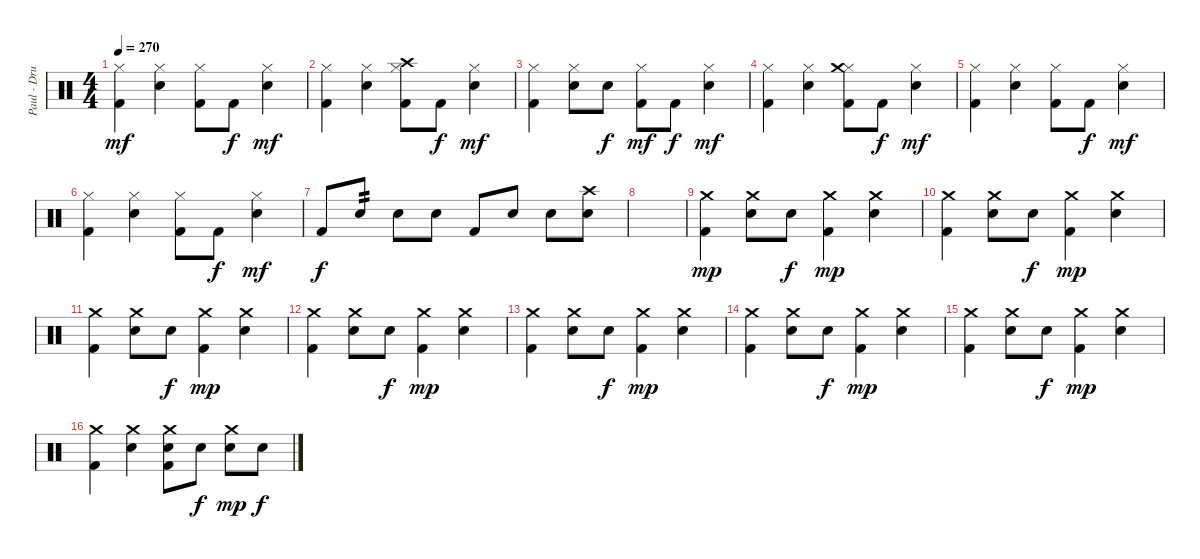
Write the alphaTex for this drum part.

\track ("Paul - Drums" "Paul - Dru") {instrument percussion}
\staff {score}
\articulation defaults
\ts (4 4)
\tempo 270
\clef neutral
\ks c
("Hi-Hat (closed)" "Kick (hit) 2").4{dy mf} ("Hi-Hat (closed)" "Electric Snare (hit)").4 ("Hi-Hat (closed)" "Kick (hit) 2").8 "Kick (hit) 2".8{dy f} ("Hi-Hat (closed)" "Electric Snare (hit)").4{dy mf} |
("Hi-Hat (closed)" "Kick (hit) 2").4 ("Hi-Hat (closed)" "Electric Snare (hit)").4 ("Hi-Hat (closed)" "Crash high (hit)" "Kick (hit) 2").8 "Kick (hit) 2".8{dy f} ("Hi-Hat (closed)" "Electric Snare (hit)").4{dy mf} |
("Hi-Hat (closed)" "Kick (hit) 2").4 ("Hi-Hat (closed)" "Electric Snare (hit)").8 "Electric Snare (hit)".8{dy f} ("Hi-Hat (closed)" "Kick (hit) 2").8{dy mf} "Kick (hit) 2".8{dy f} ("Hi-Hat (closed)" "Electric Snare (hit)").4{dy mf} |
("Hi-Hat (closed)" "Kick (hit) 2").4 ("Hi-Hat (closed)" "Electric Snare (hit)").4 ("Hi-Hat (closed)" "Crash medium (hit)" "Kick (hit) 2").8 "Kick (hit) 2".8{dy f} ("Hi-Hat (closed)" "Electric Snare (hit)").4{dy mf} |
("Hi-Hat (closed)" "Kick (hit) 2").4 ("Hi-Hat (closed)" "Electric Snare (hit)").4 ("Hi-Hat (closed)" "Kick (hit) 2").8 "Kick (hit) 2".8{dy f} ("Hi-Hat (closed)" "Electric Snare (hit)").4{dy mf} |
("Hi-Hat (closed)" "Kick (hit) 2").4 ("Hi-Hat (closed)" "Electric Snare (hit)").4 ("Hi-Hat (closed)" "Kick (hit) 2").8 "Kick (hit) 2".8{dy f} ("Hi-Hat (closed)" "Electric Snare (hit)").4{dy mf} |
"Kick (hit) 2".8{dy f} "Electric Snare (hit)".8{tp 2} "Electric Snare (hit)".8 "Electric Snare (hit)".8 "Kick (hit) 2".8 "Electric Snare (hit)".8 "Electric Snare (hit)".8 ("Crash high (hit)" "Electric Snare (hit)").8 |
|
("Crash medium (hit)" "Kick (hit) 2").4{dy mp} ("Crash medium (hit)" "Electric Snare (hit)").8 "Electric Snare (hit)".8{dy f} ("Crash medium (hit)" "Kick (hit) 2").4{dy mp} ("Crash medium (hit)" "Electric Snare (hit)").4 |
("Crash medium (hit)" "Kick (hit) 2").4 ("Crash medium (hit)" "Electric Snare (hit)").8 "Electric Snare (hit)".8{dy f} ("Crash medium (hit)" "Kick (hit) 2").4{dy mp} ("Crash medium (hit)" "Electric Snare (hit)").4 |
("Crash medium (hit)" "Kick (hit) 2").4 ("Crash medium (hit)" "Electric Snare (hit)").8 "Electric Snare (hit)".8{dy f} ("Crash medium (hit)" "Kick (hit) 2").4{dy mp} ("Crash medium (hit)" "Electric Snare (hit)").4 |
("Crash medium (hit)" "Kick (hit) 2").4 ("Crash medium (hit)" "Electric Snare (hit)").8 "Electric Snare (hit)".8{dy f} ("Crash medium (hit)" "Kick (hit) 2").4{dy mp} ("Crash medium (hit)" "Electric Snare (hit)").4 |
("Crash medium (hit)" "Kick (hit) 2").4 ("Crash medium (hit)" "Electric Snare (hit)").8 "Electric Snare (hit)".8{dy f} ("Crash medium (hit)" "Kick (hit) 2").4{dy mp} ("Crash medium (hit)" "Electric Snare (hit)").4 |
("Crash medium (hit)" "Kick (hit) 2").4 ("Crash medium (hit)" "Electric Snare (hit)").8 "Electric Snare (hit)".8{dy f} ("Crash medium (hit)" "Kick (hit) 2").4{dy mp} ("Crash medium (hit)" "Electric Snare (hit)").4 |
("Crash medium (hit)" "Kick (hit) 2").4 ("Crash medium (hit)" "Electric Snare (hit)").8 "Electric Snare (hit)".8{dy f} ("Crash medium (hit)" "Kick (hit) 2").4{dy mp} ("Crash medium (hit)" "Electric Snare (hit)").4 |
("Crash medium (hit)" "Kick (hit) 2").4 ("Crash medium (hit)" "Electric Snare (hit)").4 ("Crash medium (hit)" "Electric Snare (hit)" "Kick (hit) 2").8 "Electric Snare (hit)".8{dy f} ("Crash medium (hit)" "Electric Snare (hit)").8{dy mp} "Electric Snare (hit)".8{dy f}
